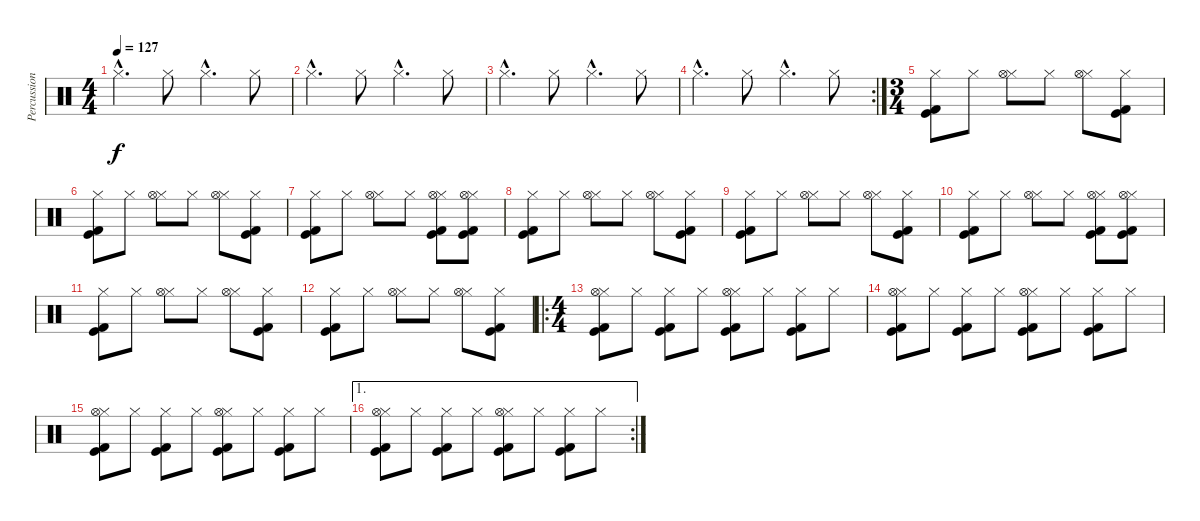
\track ("Percussion" "Percussion") {instrument percussion}
\staff {score}
\articulation defaults
\ts (4 4)
\tempo 127
\clef neutral
\ks c "Hi-Hat (closed)"{hac}.4{d dy f} "Hi-Hat (closed)".8 "Hi-Hat (closed)"{hac}.4{d} "Hi-Hat (closed)".8
|
"Hi-Hat (closed)"{hac}.4{d} "Hi-Hat (closed)".8 "Hi-Hat (closed)"{hac}.4{d} "Hi-Hat (closed)".8 |
"Hi-Hat (closed)"{hac}.4{d} "Hi-Hat (closed)".8 "Hi-Hat (closed)"{hac}.4{d} "Hi-Hat (closed)".8 |
\rc 2 "Hi-Hat (closed)"{hac}.4{d} "Hi-Hat (closed)".8 "Hi-Hat (closed)"{hac}.4{d} "Hi-Hat (closed)".8
|
\ts (3 4)
("Hi-Hat (closed)" "Kick (hit) 2" "Kick (hit)").8 "Hi-Hat (closed)".8 ("Hi-Hat (closed)" "Hi-Hat (open)").8 "Hi-Hat (closed)".8 ("Hi-Hat (closed)" "Hi-Hat (open)").8 ("Hi-Hat (closed)" "Kick (hit) 2" "Kick (hit)").8 |
("Hi-Hat (closed)" "Kick (hit) 2" "Kick (hit)").8 "Hi-Hat (closed)".8 ("Hi-Hat (closed)" "Hi-Hat (open)").8 "Hi-Hat (closed)".8 ("Hi-Hat (closed)" "Hi-Hat (open)").8 ("Hi-Hat (closed)" "Kick (hit) 2" "Kick (hit)").8 |
("Hi-Hat (closed)" "Kick (hit) 2" "Kick (hit)").8 "Hi-Hat (closed)".8 ("Hi-Hat (closed)" "Hi-Hat (open)").8 "Hi-Hat (closed)".8 ("Hi-Hat (closed)" "Hi-Hat (open)" "Kick (hit) 2" "Kick (hit)").8 ("Hi-Hat (closed)" "Hi-Hat (open)" "Kick (hit) 2" "Kick (hit)").8 |
("Hi-Hat (closed)" "Kick (hit) 2" "Kick (hit)").8 "Hi-Hat (closed)".8 ("Hi-Hat (closed)" "Hi-Hat (open)").8 "Hi-Hat (closed)".8 ("Hi-Hat (closed)" "Hi-Hat (open)").8 ("Hi-Hat (closed)" "Kick (hit) 2" "Kick (hit)").8 |
("Hi-Hat (closed)" "Kick (hit) 2" "Kick (hit)").8 "Hi-Hat (closed)".8 ("Hi-Hat (closed)" "Hi-Hat (open)").8 "Hi-Hat (closed)".8 ("Hi-Hat (closed)" "Hi-Hat (open)").8 ("Hi-Hat (closed)" "Kick (hit) 2" "Kick (hit)").8 |
("Hi-Hat (closed)" "Kick (hit) 2" "Kick (hit)").8 "Hi-Hat (closed)".8 ("Hi-Hat (closed)" "Hi-Hat (open)").8 "Hi-Hat (closed)".8 ("Hi-Hat (closed)" "Hi-Hat (open)" "Kick (hit) 2" "Kick (hit)").8 ("Hi-Hat (closed)" "Hi-Hat (open)" "Kick (hit) 2" "Kick (hit)").8 |
("Hi-Hat (closed)" "Kick (hit) 2" "Kick (hit)").8 "Hi-Hat (closed)".8 ("Hi-Hat (closed)" "Hi-Hat (open)").8 "Hi-Hat (closed)".8 ("Hi-Hat (closed)" "Hi-Hat (open)").8 ("Hi-Hat (closed)" "Kick (hit) 2" "Kick (hit)").8 |
("Hi-Hat (closed)" "Kick (hit) 2" "Kick (hit)").8 "Hi-Hat (closed)".8 ("Hi-Hat (closed)" "Hi-Hat (open)").8 "Hi-Hat (closed)".8 ("Hi-Hat (closed)" "Hi-Hat (open)").8 ("Hi-Hat (closed)" "Kick (hit) 2" "Kick (hit)").8 |
\ro
\ts (4 4)
("Hi-Hat (closed)" "Hi-Hat (open)" "Kick (hit) 2" "Kick (hit)").8 "Hi-Hat (closed)".8 ("Hi-Hat (closed)" "Kick (hit) 2" "Kick (hit)").8 "Hi-Hat (closed)".8 ("Hi-Hat (closed)" "Hi-Hat (open)" "Kick (hit) 2" "Kick (hit)").8 "Hi-Hat (closed)".8 ("Hi-Hat (closed)" "Kick (hit) 2" "Kick (hit)").8 "Hi-Hat (closed)".8 |
("Hi-Hat (closed)" "Hi-Hat (open)" "Kick (hit) 2" "Kick (hit)").8 "Hi-Hat (closed)".8 ("Hi-Hat (closed)" "Kick (hit) 2" "Kick (hit)").8 "Hi-Hat (closed)".8 ("Hi-Hat (closed)" "Hi-Hat (open)" "Kick (hit) 2" "Kick (hit)").8 "Hi-Hat (closed)".8 ("Hi-Hat (closed)" "Kick (hit) 2" "Kick (hit)").8 "Hi-Hat (closed)".8 |
("Hi-Hat (closed)" "Hi-Hat (open)" "Kick (hit) 2" "Kick (hit)").8 "Hi-Hat (closed)".8 ("Hi-Hat (closed)" "Kick (hit) 2" "Kick (hit)").8 "Hi-Hat (closed)".8 ("Hi-Hat (closed)" "Hi-Hat (open)" "Kick (hit) 2" "Kick (hit)").8 "Hi-Hat (closed)".8 ("Hi-Hat (closed)" "Kick (hit) 2" "Kick (hit)").8 "Hi-Hat (closed)".8 |
\ae 1
\rc 2
("Hi-Hat (closed)" "Hi-Hat (open)" "Kick (hit) 2" "Kick (hit)").8 "Hi-Hat (closed)".8 ("Hi-Hat (closed)" "Kick (hit) 2" "Kick (hit)").8 "Hi-Hat (closed)".8 ("Hi-Hat (closed)" "Hi-Hat (open)" "Kick (hit) 2" "Kick (hit)").8 "Hi-Hat (closed)".8 ("Hi-Hat (closed)" "Kick (hit) 2" "Kick (hit)").8 "Hi-Hat (closed)".8
